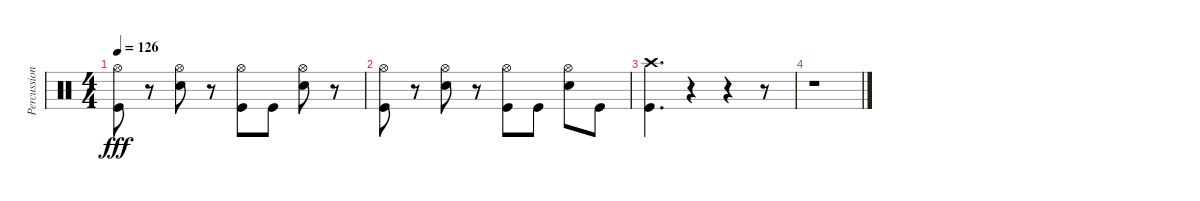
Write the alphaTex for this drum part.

\track ("Percussions" "Percussion") {instrument percussion}
\staff {score}
\articulation defaults
\ts (4 4)
\tempo 126
\clef neutral
\ks c
("Hi-Hat (open)" "Kick (hit)").8{dy fff} r.8 ("Hi-Hat (open)" "Electric Snare (hit)").8 r.8 ("Hi-Hat (open)" "Kick (hit)").8 "Kick (hit)".8 ("Hi-Hat (open)" "Electric Snare (hit)").8 r.8 |
("Hi-Hat (open)" "Kick (hit)").8 r.8 ("Hi-Hat (open)" "Electric Snare (hit)").8 r.8 ("Hi-Hat (open)" "Kick (hit)").8 "Kick (hit)".8 ("Hi-Hat (open)" "Electric Snare (hit)").8 "Kick (hit)".8 |
("Crash high (hit)" "Kick (hit)").4{d} r.4 r.4 r.8 |
r.1
